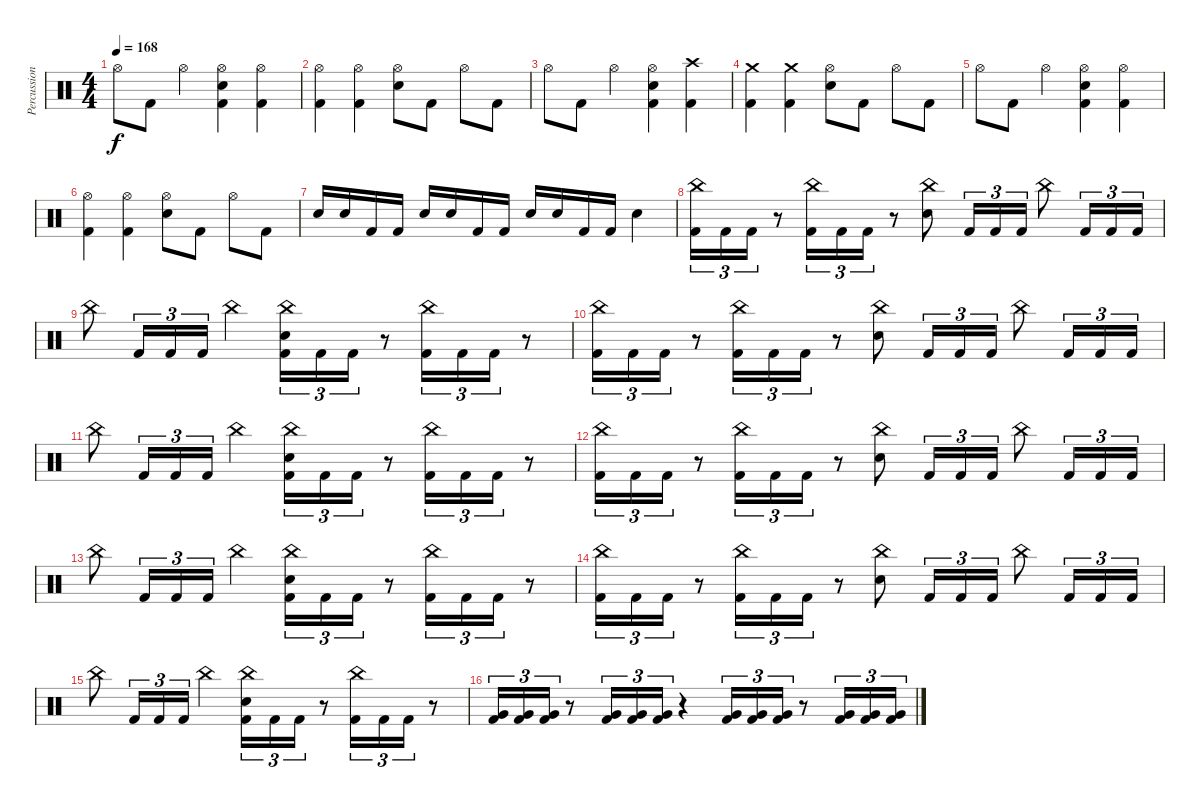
\track ("Percussion" "Percussion") {instrument percussion}
\staff {score}
\articulation defaults
\ts (4 4)
\tempo 168
\clef neutral
\ks c "Hi-Hat (open)".8{dy f} "Kick (hit) 2".8 "Hi-Hat (open)".4
("Hi-Hat (open)" "Electric Snare (hit)" "Kick (hit) 2").4 ("Hi-Hat (open)" "Kick (hit) 2").4 |
("Hi-Hat (open)" "Kick (hit) 2").4 ("Hi-Hat (open)" "Kick (hit) 2").4 ("Hi-Hat (open)" "Electric Snare (hit)").8 "Kick (hit) 2".8 "Hi-Hat (open)".8 "Kick (hit) 2".8 |
"Hi-Hat (open)".8 "Kick (hit) 2".8 "Hi-Hat (open)".4 ("Hi-Hat (open)" "Electric Snare (hit)" "Kick (hit) 2").4 ("Crash high (hit)" "Kick (hit) 2").4 |
("Crash medium (hit)" "Kick (hit) 2").4 ("Crash medium (hit)" "Kick (hit) 2").4 ("Hi-Hat (open)" "Electric Snare (hit)").8 "Kick (hit) 2".8 "Hi-Hat (open)".8 "Kick (hit) 2".8 |
"Hi-Hat (open)".8 "Kick (hit) 2".8 "Hi-Hat (open)".4 ("Hi-Hat (open)" "Electric Snare (hit)" "Kick (hit) 2").4 ("Hi-Hat (open)" "Kick (hit) 2").4 |
("Hi-Hat (open)" "Kick (hit) 2").4 ("Hi-Hat (open)" "Kick (hit) 2").4 ("Hi-Hat (open)" "Electric Snare (hit)").8 "Kick (hit) 2".8 "Hi-Hat (open)".8 "Kick (hit) 2".8 |
"Electric Snare (hit)".16 "Electric Snare (hit)".16 "Kick (hit) 2".16 "Kick (hit) 2".16 "Electric Snare (hit)".16 "Electric Snare (hit)".16 "Kick (hit) 2".16 "Kick (hit) 2".16 "Electric Snare (hit)".16 "Electric Snare (hit)".16 "Kick (hit) 2".16 "Kick (hit) 2".16 "Electric Snare (hit)".4 |
("China (hit)" "Kick (hit) 2").16{tu (3 2)} "Kick (hit) 2".16{tu (3 2)} "Kick (hit) 2".16{tu (3 2)} r.8 ("China (hit)" "Kick (hit) 2").16{tu (3 2)} "Kick (hit) 2".16{tu (3 2)} "Kick (hit) 2".16{tu (3 2)} r.8 ("China (hit)" "Electric Snare (hit)").8 "Kick (hit) 2".16{tu (3 2)} "Kick (hit) 2".16{tu (3 2)} "Kick (hit) 2".16{tu (3 2)} "China (hit)".8 "Kick (hit) 2".16{tu (3 2)} "Kick (hit) 2".16{tu (3 2)} "Kick (hit) 2".16{tu (3 2)} |
"China (hit)".8 "Kick (hit) 2".16{tu (3 2)} "Kick (hit) 2".16{tu (3 2)} "Kick (hit) 2".16{tu (3 2)} "China (hit)".4 ("China (hit)" "Electric Snare (hit)" "Kick (hit) 2").16{tu (3 2)} "Kick (hit) 2".16{tu (3 2)} "Kick (hit) 2".16{tu (3 2)} r.8 ("China (hit)" "Kick (hit) 2").16{tu (3 2)} "Kick (hit) 2".16{tu (3 2)} "Kick (hit) 2".16{tu (3 2)} r.8 |
("China (hit)" "Kick (hit) 2").16{tu (3 2)} "Kick (hit) 2".16{tu (3 2)} "Kick (hit) 2".16{tu (3 2)} r.8 ("China (hit)" "Kick (hit) 2").16{tu (3 2)} "Kick (hit) 2".16{tu (3 2)} "Kick (hit) 2".16{tu (3 2)} r.8 ("China (hit)" "Electric Snare (hit)").8 "Kick (hit) 2".16{tu (3 2)} "Kick (hit) 2".16{tu (3 2)} "Kick (hit) 2".16{tu (3 2)} "China (hit)".8 "Kick (hit) 2".16{tu (3 2)} "Kick (hit) 2".16{tu (3 2)} "Kick (hit) 2".16{tu (3 2)} |
"China (hit)".8 "Kick (hit) 2".16{tu (3 2)} "Kick (hit) 2".16{tu (3 2)} "Kick (hit) 2".16{tu (3 2)} "China (hit)".4 ("China (hit)" "Electric Snare (hit)" "Kick (hit) 2").16{tu (3 2)} "Kick (hit) 2".16{tu (3 2)} "Kick (hit) 2".16{tu (3 2)} r.8 ("China (hit)" "Kick (hit) 2").16{tu (3 2)} "Kick (hit) 2".16{tu (3 2)} "Kick (hit) 2".16{tu (3 2)} r.8 |
("China (hit)" "Kick (hit) 2").16{tu (3 2)} "Kick (hit) 2".16{tu (3 2)} "Kick (hit) 2".16{tu (3 2)} r.8 ("China (hit)" "Kick (hit) 2").16{tu (3 2)} "Kick (hit) 2".16{tu (3 2)} "Kick (hit) 2".16{tu (3 2)} r.8 ("China (hit)" "Electric Snare (hit)").8 "Kick (hit) 2".16{tu (3 2)} "Kick (hit) 2".16{tu (3 2)} "Kick (hit) 2".16{tu (3 2)} "China (hit)".8 "Kick (hit) 2".16{tu (3 2)} "Kick (hit) 2".16{tu (3 2)} "Kick (hit) 2".16{tu (3 2)} |
"China (hit)".8 "Kick (hit) 2".16{tu (3 2)} "Kick (hit) 2".16{tu (3 2)} "Kick (hit) 2".16{tu (3 2)} "China (hit)".4 ("China (hit)" "Electric Snare (hit)" "Kick (hit) 2").16{tu (3 2)} "Kick (hit) 2".16{tu (3 2)} "Kick (hit) 2".16{tu (3 2)} r.8 ("China (hit)" "Kick (hit) 2").16{tu (3 2)} "Kick (hit) 2".16{tu (3 2)} "Kick (hit) 2".16{tu (3 2)} r.8 |
("China (hit)" "Kick (hit) 2").16{tu (3 2)} "Kick (hit) 2".16{tu (3 2)} "Kick (hit) 2".16{tu (3 2)} r.8 ("China (hit)" "Kick (hit) 2").16{tu (3 2)} "Kick (hit) 2".16{tu (3 2)} "Kick (hit) 2".16{tu (3 2)} r.8 ("China (hit)" "Electric Snare (hit)").8 "Kick (hit) 2".16{tu (3 2)} "Kick (hit) 2".16{tu (3 2)} "Kick (hit) 2".16{tu (3 2)} "China (hit)".8 "Kick (hit) 2".16{tu (3 2)} "Kick (hit) 2".16{tu (3 2)} "Kick (hit) 2".16{tu (3 2)} |
"China (hit)".8 "Kick (hit) 2".16{tu (3 2)} "Kick (hit) 2".16{tu (3 2)} "Kick (hit) 2".16{tu (3 2)} "China (hit)".4 ("China (hit)" "Electric Snare (hit)" "Kick (hit) 2").16{tu (3 2)} "Kick (hit) 2".16{tu (3 2)} "Kick (hit) 2".16{tu (3 2)} r.8 ("China (hit)" "Kick (hit) 2").16{tu (3 2)} "Kick (hit) 2".16{tu (3 2)} "Kick (hit) 2".16{tu (3 2)} r.8 |
("Very Low Tom (hit)" "Kick (hit) 2").16{tu (3 2)} ("Very Low Tom (hit)" "Kick (hit) 2").16{tu (3 2)} ("Very Low Tom (hit)" "Kick (hit) 2").16{tu (3 2)} r.8 ("Very Low Tom (hit)" "Kick (hit) 2").16{tu (3 2)} ("Very Low Tom (hit)" "Kick (hit) 2").16{tu (3 2)} ("Very Low Tom (hit)" "Kick (hit) 2").16{tu (3 2)} r.4 ("Very Low Tom (hit)" "Kick (hit) 2").16{tu (3 2)} ("Very Low Tom (hit)" "Kick (hit) 2").16{tu (3 2)} ("Very Low Tom (hit)" "Kick (hit) 2").16{tu (3 2)} r.8 ("Very Low Tom (hit)" "Kick (hit) 2").16{tu (3 2)} ("Very Low Tom (hit)" "Kick (hit) 2").16{tu (3 2)} ("Very Low Tom (hit)" "Kick (hit) 2").16{tu (3 2)}
